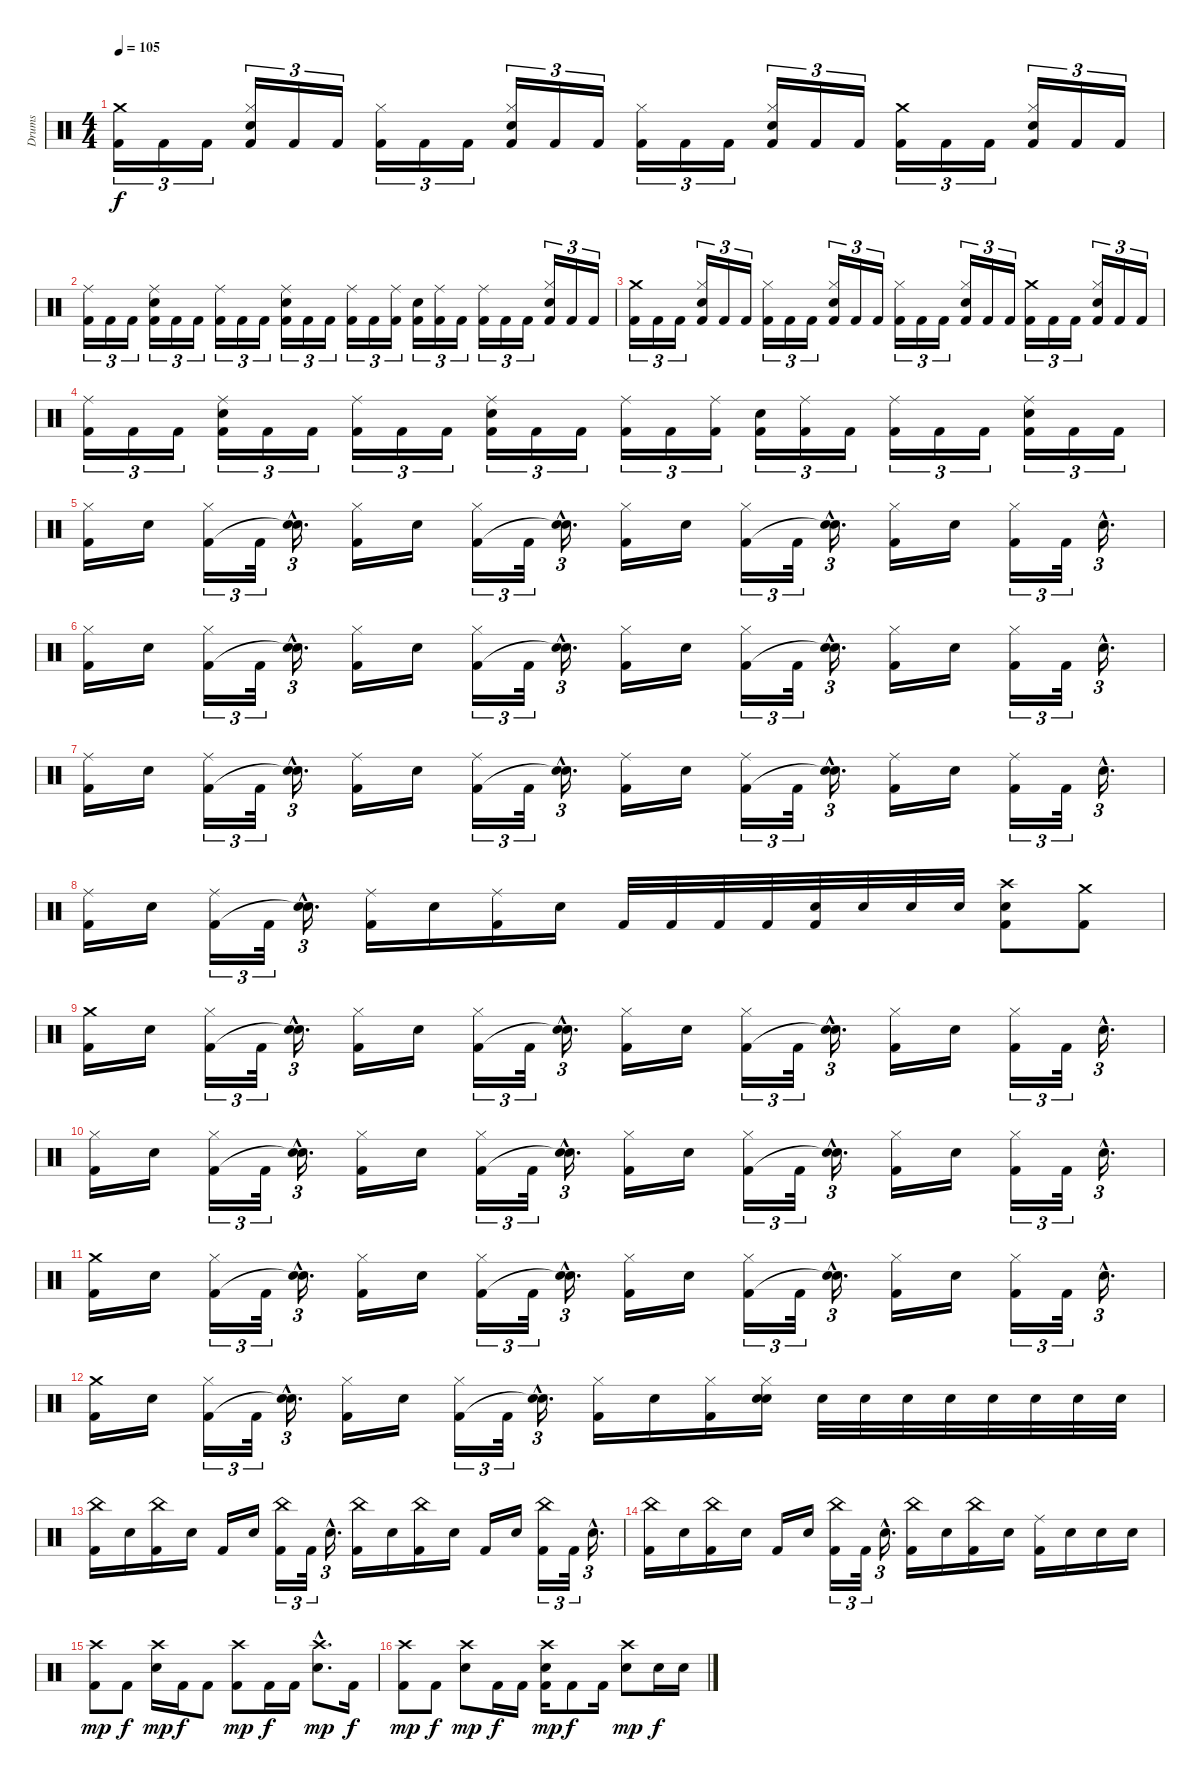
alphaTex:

\track ("Drums" "Drums") {instrument percussion}
\staff {score}
\articulation defaults
\ts (4 4)
\tempo 105
\clef neutral
\ks c
("Crash medium (hit)" "Kick (hit) 2").16{tu (3 2) dy f} "Kick (hit) 2".16{tu (3 2)} "Kick (hit) 2".16{tu (3 2)} ("Hi-Hat (closed)" "Electric Snare (hit)" "Kick (hit) 2").16{tu (3 2)} "Kick (hit) 2".16{tu (3 2)} "Kick (hit) 2".16{tu (3 2)} ("Hi-Hat (closed)" "Kick (hit) 2").16{tu (3 2)} "Kick (hit) 2".16{tu (3 2)} "Kick (hit) 2".16{tu (3 2)} ("Hi-Hat (closed)" "Electric Snare (hit)" "Kick (hit) 2").16{tu (3 2)} "Kick (hit) 2".16{tu (3 2)} "Kick (hit) 2".16{tu (3 2)} ("Hi-Hat (closed)" "Kick (hit) 2").16{tu (3 2)} "Kick (hit) 2".16{tu (3 2)} "Kick (hit) 2".16{tu (3 2)} ("Hi-Hat (closed)" "Electric Snare (hit)" "Kick (hit) 2").16{tu (3 2)} "Kick (hit) 2".16{tu (3 2)} "Kick (hit) 2".16{tu (3 2)} ("Crash medium (hit)" "Kick (hit) 2").16{tu (3 2)} "Kick (hit) 2".16{tu (3 2)} "Kick (hit) 2".16{tu (3 2)} ("Hi-Hat (closed)" "Electric Snare (hit)" "Kick (hit) 2").16{tu (3 2)} "Kick (hit) 2".16{tu (3 2)} "Kick (hit) 2".16{tu (3 2)} |
("Ride (middle)" "Kick (hit) 2").16{tu (3 2)} "Kick (hit) 2".16{tu (3 2)} "Kick (hit) 2".16{tu (3 2)} ("Ride (middle)" "Electric Snare (hit)" "Kick (hit) 2").16{tu (3 2)} "Kick (hit) 2".16{tu (3 2)} "Kick (hit) 2".16{tu (3 2)} ("Ride (middle)" "Kick (hit) 2").16{tu (3 2)} "Kick (hit) 2".16{tu (3 2)} "Kick (hit) 2".16{tu (3 2)} ("Ride (middle)" "Electric Snare (hit)" "Kick (hit) 2").16{tu (3 2)} "Kick (hit) 2".16{tu (3 2)} "Kick (hit) 2".16{tu (3 2)} ("Ride (middle)" "Kick (hit) 2").16{tu (3 2)} "Kick (hit) 2".16{tu (3 2)} ("Ride (middle)" "Kick (hit) 2").16{tu (3 2)} ("Electric Snare (hit)" "Kick (hit) 2").16{tu (3 2)} ("Ride (middle)" "Kick (hit) 2").16{tu (3 2)} "Kick (hit) 2".16{tu (3 2)} ("Ride (middle)" "Kick (hit) 2").16{tu (3 2)} "Kick (hit) 2".16{tu (3 2)} "Kick (hit) 2".16{tu (3 2)} ("Hi-Hat (closed)" "Electric Snare (hit)" "Kick (hit) 2").16{tu (3 2)} "Kick (hit) 2".16{tu (3 2)} "Kick (hit) 2".16{tu (3 2)} |
("Crash medium (hit)" "Kick (hit) 2").16{tu (3 2)} "Kick (hit) 2".16{tu (3 2)} "Kick (hit) 2".16{tu (3 2)} ("Hi-Hat (closed)" "Electric Snare (hit)" "Kick (hit) 2").16{tu (3 2)} "Kick (hit) 2".16{tu (3 2)} "Kick (hit) 2".16{tu (3 2)} ("Hi-Hat (closed)" "Kick (hit) 2").16{tu (3 2)} "Kick (hit) 2".16{tu (3 2)} "Kick (hit) 2".16{tu (3 2)} ("Hi-Hat (closed)" "Electric Snare (hit)" "Kick (hit) 2").16{tu (3 2)} "Kick (hit) 2".16{tu (3 2)} "Kick (hit) 2".16{tu (3 2)} ("Hi-Hat (closed)" "Kick (hit) 2").16{tu (3 2)} "Kick (hit) 2".16{tu (3 2)} "Kick (hit) 2".16{tu (3 2)} ("Hi-Hat (closed)" "Electric Snare (hit)" "Kick (hit) 2").16{tu (3 2)} "Kick (hit) 2".16{tu (3 2)} "Kick (hit) 2".16{tu (3 2)} ("Crash medium (hit)" "Kick (hit) 2").16{tu (3 2)} "Kick (hit) 2".16{tu (3 2)} "Kick (hit) 2".16{tu (3 2)} ("Hi-Hat (closed)" "Electric Snare (hit)" "Kick (hit) 2").16{tu (3 2)} "Kick (hit) 2".16{tu (3 2)} "Kick (hit) 2".16{tu (3 2)} |
("Ride (middle)" "Kick (hit) 2").16{tu (3 2)} "Kick (hit) 2".16{tu (3 2)} "Kick (hit) 2".16{tu (3 2)} ("Ride (middle)" "Electric Snare (hit)" "Kick (hit) 2").16{tu (3 2)} "Kick (hit) 2".16{tu (3 2)} "Kick (hit) 2".16{tu (3 2)} ("Ride (middle)" "Kick (hit) 2").16{tu (3 2)} "Kick (hit) 2".16{tu (3 2)} "Kick (hit) 2".16{tu (3 2)} ("Ride (middle)" "Electric Snare (hit)" "Kick (hit) 2").16{tu (3 2)} "Kick (hit) 2".16{tu (3 2)} "Kick (hit) 2".16{tu (3 2)} ("Ride (middle)" "Kick (hit) 2").16{tu (3 2)} "Kick (hit) 2".16{tu (3 2)} ("Ride (middle)" "Kick (hit) 2").16{tu (3 2)} ("Electric Snare (hit)" "Kick (hit) 2").16{tu (3 2)} ("Ride (middle)" "Kick (hit) 2").16{tu (3 2)} "Kick (hit) 2".16{tu (3 2)} ("Ride (middle)" "Kick (hit) 2").16{tu (3 2)} "Kick (hit) 2".16{tu (3 2)} "Kick (hit) 2".16{tu (3 2)} ("Ride (middle)" "Electric Snare (hit)" "Kick (hit) 2").16{tu (3 2)} "Kick (hit) 2".16{tu (3 2)} "Kick (hit) 2".16{tu (3 2)} |
("Hi-Hat (closed)" "Kick (hit) 2").16 "Electric Snare (hit)".16 ("Hi-Hat (closed)" "Kick (hit) 2").16{tu (3 2)} "Kick (hit) 2".32{tu (3 2)} ("Electric Snare (hit)"{hac} "Snare (hit)"{hac t}).16{d tu (3 2)} ("Hi-Hat (closed)" "Kick (hit) 2").16 "Electric Snare (hit)".16 ("Hi-Hat (closed)" "Kick (hit) 2").16{tu (3 2)} "Kick (hit) 2".32{tu (3 2)} ("Electric Snare (hit)"{hac} "Snare (hit)"{hac t}).16{d tu (3 2)} ("Hi-Hat (closed)" "Kick (hit) 2").16 "Electric Snare (hit)".16 ("Hi-Hat (closed)" "Kick (hit) 2").16{tu (3 2)} "Kick (hit) 2".32{tu (3 2)} ("Electric Snare (hit)"{hac} "Snare (hit)"{hac t}).16{d tu (3 2)} ("Hi-Hat (closed)" "Kick (hit) 2").16 "Electric Snare (hit)".16 ("Hi-Hat (closed)" "Kick (hit) 2").16{tu (3 2)} "Kick (hit) 2".32{tu (3 2)} "Electric Snare (hit)"{hac}.16{d tu (3 2)} |
("Hi-Hat (closed)" "Kick (hit) 2").16 "Electric Snare (hit)".16 ("Hi-Hat (closed)" "Kick (hit) 2").16{tu (3 2)} "Kick (hit) 2".32{tu (3 2)} ("Electric Snare (hit)"{hac} "Snare (hit)"{hac t}).16{d tu (3 2)} ("Hi-Hat (closed)" "Kick (hit) 2").16 "Electric Snare (hit)".16 ("Hi-Hat (closed)" "Kick (hit) 2").16{tu (3 2)} "Kick (hit) 2".32{tu (3 2)} ("Electric Snare (hit)"{hac} "Snare (hit)"{hac t}).16{d tu (3 2)} ("Hi-Hat (closed)" "Kick (hit) 2").16 "Electric Snare (hit)".16 ("Hi-Hat (closed)" "Kick (hit) 2").16{tu (3 2)} "Kick (hit) 2".32{tu (3 2)} ("Electric Snare (hit)"{hac} "Snare (hit)"{hac t}).16{d tu (3 2)} ("Hi-Hat (closed)" "Kick (hit) 2").16 "Electric Snare (hit)".16 ("Hi-Hat (closed)" "Kick (hit) 2").16{tu (3 2)} "Kick (hit) 2".32{tu (3 2)} "Electric Snare (hit)"{hac}.16{d tu (3 2)} |
("Ride (middle)" "Kick (hit) 2").16 "Electric Snare (hit)".16 ("Ride (middle)" "Kick (hit) 2").16{tu (3 2)} "Kick (hit) 2".32{tu (3 2)} ("Electric Snare (hit)"{hac} "Snare (hit)"{hac t}).16{d tu (3 2)} ("Ride (middle)" "Kick (hit) 2").16 "Electric Snare (hit)".16 ("Ride (middle)" "Kick (hit) 2").16{tu (3 2)} "Kick (hit) 2".32{tu (3 2)} ("Electric Snare (hit)"{hac} "Snare (hit)"{hac t}).16{d tu (3 2)} ("Ride (middle)" "Kick (hit) 2").16 "Electric Snare (hit)".16 ("Ride (middle)" "Kick (hit) 2").16{tu (3 2)} "Kick (hit) 2".32{tu (3 2)} ("Electric Snare (hit)"{hac} "Snare (hit)"{hac t}).16{d tu (3 2)} ("Ride (middle)" "Kick (hit) 2").16 "Electric Snare (hit)".16 ("Ride (middle)" "Kick (hit) 2").16{tu (3 2)} "Kick (hit) 2".32{tu (3 2)} "Electric Snare (hit)"{hac}.16{d tu (3 2)} |
("Ride (middle)" "Kick (hit) 2").16 "Electric Snare (hit)".16 ("Ride (middle)" "Kick (hit) 2").16{tu (3 2)} "Kick (hit) 2".32{tu (3 2)} ("Electric Snare (hit)"{hac} "Snare (hit)"{hac t}).16{d tu (3 2)} ("Ride (middle)" "Kick (hit) 2").16 "Electric Snare (hit)".16 ("Ride (middle)" "Kick (hit) 2").16 "Electric Snare (hit)".16 "Kick (hit) 2".32 "Kick (hit) 2".32 "Kick (hit) 2".32 "Kick (hit) 2".32 ("Electric Snare (hit)" "Kick (hit) 2").32 "Electric Snare (hit)".32 "Electric Snare (hit)".32 "Electric Snare (hit)".32 ("Crash high (hit)" "Electric Snare (hit)" "Kick (hit) 2").8 ("Crash medium (hit)" "Kick (hit) 2").8 |
("Crash medium (hit)" "Kick (hit) 2").16 "Electric Snare (hit)".16 ("Hi-Hat (closed)" "Kick (hit) 2").16{tu (3 2)} "Kick (hit) 2".32{tu (3 2)} ("Electric Snare (hit)"{hac} "Snare (hit)"{hac t}).16{d tu (3 2)} ("Hi-Hat (closed)" "Kick (hit) 2").16 "Electric Snare (hit)".16 ("Hi-Hat (closed)" "Kick (hit) 2").16{tu (3 2)} "Kick (hit) 2".32{tu (3 2)} ("Electric Snare (hit)"{hac} "Snare (hit)"{hac t}).16{d tu (3 2)} ("Hi-Hat (closed)" "Kick (hit) 2").16 "Electric Snare (hit)".16 ("Hi-Hat (closed)" "Kick (hit) 2").16{tu (3 2)} "Kick (hit) 2".32{tu (3 2)} ("Electric Snare (hit)"{hac} "Snare (hit)"{hac t}).16{d tu (3 2)} ("Hi-Hat (closed)" "Kick (hit) 2").16 "Electric Snare (hit)".16 ("Hi-Hat (closed)" "Kick (hit) 2").16{tu (3 2)} "Kick (hit) 2".32{tu (3 2)} "Electric Snare (hit)"{hac}.16{d tu (3 2)} |
("Hi-Hat (closed)" "Kick (hit) 2").16 "Electric Snare (hit)".16 ("Hi-Hat (closed)" "Kick (hit) 2").16{tu (3 2)} "Kick (hit) 2".32{tu (3 2)} ("Electric Snare (hit)"{hac} "Snare (hit)"{hac t}).16{d tu (3 2)} ("Hi-Hat (closed)" "Kick (hit) 2").16 "Electric Snare (hit)".16 ("Hi-Hat (closed)" "Kick (hit) 2").16{tu (3 2)} "Kick (hit) 2".32{tu (3 2)} ("Electric Snare (hit)"{hac} "Snare (hit)"{hac t}).16{d tu (3 2)} ("Hi-Hat (closed)" "Kick (hit) 2").16 "Electric Snare (hit)".16 ("Hi-Hat (closed)" "Kick (hit) 2").16{tu (3 2)} "Kick (hit) 2".32{tu (3 2)} ("Electric Snare (hit)"{hac} "Snare (hit)"{hac t}).16{d tu (3 2)} ("Hi-Hat (closed)" "Kick (hit) 2").16 "Electric Snare (hit)".16 ("Hi-Hat (closed)" "Kick (hit) 2").16{tu (3 2)} "Kick (hit) 2".32{tu (3 2)} "Electric Snare (hit)"{hac}.16{d tu (3 2)} |
("Crash medium (hit)" "Kick (hit) 2").16 "Electric Snare (hit)".16 ("Hi-Hat (closed)" "Kick (hit) 2").16{tu (3 2)} "Kick (hit) 2".32{tu (3 2)} ("Electric Snare (hit)"{hac} "Snare (hit)"{hac t}).16{d tu (3 2)} ("Hi-Hat (closed)" "Kick (hit) 2").16 "Electric Snare (hit)".16 ("Hi-Hat (closed)" "Kick (hit) 2").16{tu (3 2)} "Kick (hit) 2".32{tu (3 2)} ("Electric Snare (hit)"{hac} "Snare (hit)"{hac t}).16{d tu (3 2)} ("Hi-Hat (closed)" "Kick (hit) 2").16 "Electric Snare (hit)".16 ("Hi-Hat (closed)" "Kick (hit) 2").16{tu (3 2)} "Kick (hit) 2".32{tu (3 2)} ("Electric Snare (hit)"{hac} "Snare (hit)"{hac t}).16{d tu (3 2)} ("Hi-Hat (closed)" "Kick (hit) 2").16 "Electric Snare (hit)".16 ("Hi-Hat (closed)" "Kick (hit) 2").16{tu (3 2)} "Kick (hit) 2".32{tu (3 2)} "Electric Snare (hit)"{hac}.16{d tu (3 2)} |
("Crash medium (hit)" "Kick (hit) 2").16 "Electric Snare (hit)".16 ("Hi-Hat (closed)" "Kick (hit) 2").16{tu (3 2)} "Kick (hit) 2".32{tu (3 2)} ("Electric Snare (hit)"{hac} "Snare (hit)"{hac t}).16{d tu (3 2)} ("Hi-Hat (closed)" "Kick (hit) 2").16 "Electric Snare (hit)".16 ("Hi-Hat (closed)" "Kick (hit) 2").16{tu (3 2)} "Kick (hit) 2".32{tu (3 2)} ("Electric Snare (hit)"{hac} "Snare (hit)"{hac t}).16{d tu (3 2)} ("Hi-Hat (closed)" "Kick (hit) 2").16 "Electric Snare (hit)".16 ("Hi-Hat (closed)" "Kick (hit) 2").16 ("Hi-Hat (closed)" "Electric Snare (hit)" "Snare (hit)").16 "Electric Snare (hit)".32 "Electric Snare (hit)".32 "Electric Snare (hit)".32 "Electric Snare (hit)".32 "Electric Snare (hit)".32 "Electric Snare (hit)".32 "Electric Snare (hit)".32 "Electric Snare (hit)".32 |
("China (hit)" "Kick (hit) 2").16 "Electric Snare (hit)".16 ("China (hit)" "Kick (hit) 2").16 "Electric Snare (hit)".16 "Kick (hit) 2".16 "Electric Snare (hit)".16 ("China (hit)" "Kick (hit) 2").16{tu (3 2)} "Kick (hit) 2".32{tu (3 2)} "Electric Snare (hit)"{hac}.16{d tu (3 2)} ("China (hit)" "Kick (hit) 2").16 "Electric Snare (hit)".16 ("China (hit)" "Kick (hit) 2").16 "Electric Snare (hit)".16 "Kick (hit) 2".16 "Electric Snare (hit)".16 ("China (hit)" "Kick (hit) 2").16{tu (3 2)} "Kick (hit) 2".32{tu (3 2)} "Electric Snare (hit)"{hac}.16{d tu (3 2)} |
("China (hit)" "Kick (hit) 2").16 "Electric Snare (hit)".16 ("China (hit)" "Kick (hit) 2").16 "Electric Snare (hit)".16 "Kick (hit) 2".16 "Electric Snare (hit)".16 ("China (hit)" "Kick (hit) 2").16{tu (3 2)} "Kick (hit) 2".32{tu (3 2)} "Electric Snare (hit)"{hac}.16{d tu (3 2)} ("China (hit)" "Kick (hit) 2").16 "Electric Snare (hit)".16 ("China (hit)" "Kick (hit) 2").16 "Electric Snare (hit)".16 ("Ride (middle)" "Kick (hit) 2").16 "Electric Snare (hit)".16 "Electric Snare (hit)".16 "Electric Snare (hit)".16 |
("Crash high (hit)" "Kick (hit) 2").8{dy mp} "Kick (hit) 2".8{dy f} ("Crash high (hit)" "Electric Snare (hit)").16{dy mp} "Kick (hit) 2".16{dy f} "Kick (hit) 2".8 ("Crash high (hit)" "Kick (hit) 2").8{dy mp} "Kick (hit) 2".16{dy f} "Kick (hit) 2".16 ("Crash high (hit)"{hac} "Electric Snare (hit)"{hac}).8{d dy mp} "Kick (hit) 2".16{dy f} |
("Crash high (hit)" "Kick (hit) 2").8{dy mp} "Kick (hit) 2".8{dy f} ("Crash high (hit)" "Electric Snare (hit)").8{dy mp} "Kick (hit) 2".16{dy f} "Kick (hit) 2".16 ("Crash high (hit)" "Electric Snare (hit)" "Kick (hit) 2").16{dy mp} "Kick (hit) 2".8{dy f} "Kick (hit) 2".16 ("Crash high (hit)" "Electric Snare (hit)").8{dy mp} "Electric Snare (hit)".16{dy f} "Electric Snare (hit)".16
